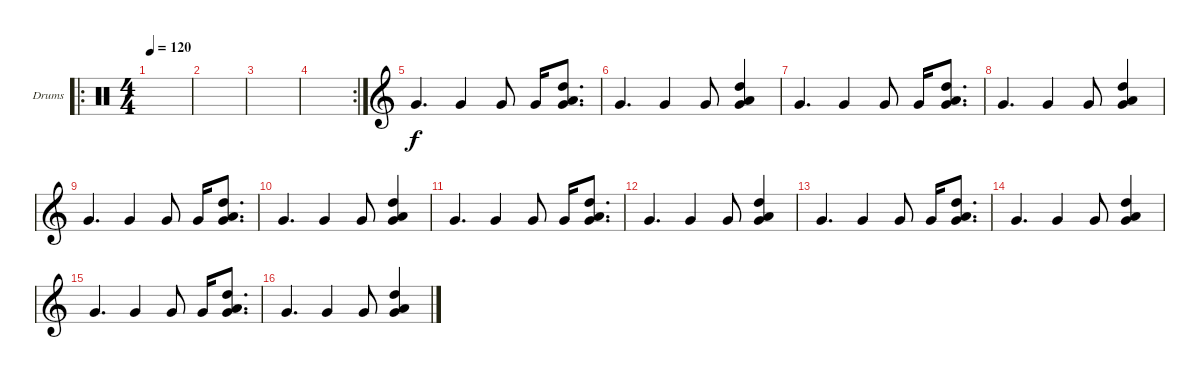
\defaultSystemsLayout 4
\bracketExtendMode groupsimilarinstruments
\firstSystemTrackNameOrientation horizontal
\otherSystemsTrackNameOrientation horizontal
\track ("Drumkit" "Drums") {instrument percussion}
\staff {score}
\articulation defaults
\ro
\ts (4 4)
\tempo 120
\clef neutral
\scale
0.5
\ks c
|
\scale
0.25 |
\scale
0.25 |
\rc 2
\scale
0.355932 |
\clef g2
\scale
0.322034 "Very Low Tom (hit)".4{d} "Very Low Tom (hit)".4 "Very Low Tom (hit)".8 "Very Low Tom (hit)".16 ("Very Low Tom (hit)" "High Tom (hit)" "Low Tom (hit)").8{d} |
\scale
0.322034 "Very Low Tom (hit)".4{d} "Very Low Tom (hit)".4 "Very Low Tom (hit)".8 ("Very Low Tom (hit)" "High Tom (hit)" "Low Tom (hit)").4 |
\scale
0.333333 "Very Low Tom (hit)".4{d} "Very Low Tom (hit)".4 "Very Low Tom (hit)".8 "Very Low Tom (hit)".16 ("Very Low Tom (hit)" "High Tom (hit)" "Low Tom (hit)").8{d} |
\scale
0.333333 "Very Low Tom (hit)".4{d} "Very Low Tom (hit)".4 "Very Low Tom (hit)".8 ("Very Low Tom (hit)" "High Tom (hit)" "Low Tom (hit)").4 |
\scale
0.333333 "Very Low Tom (hit)".4{d} "Very Low Tom (hit)".4 "Very Low Tom (hit)".8 "Very Low Tom (hit)".16 ("Very Low Tom (hit)" "High Tom (hit)" "Low Tom (hit)").8{d} |
\scale
0.333333 "Very Low Tom (hit)".4{d} "Very Low Tom (hit)".4 "Very Low Tom (hit)".8 ("Very Low Tom (hit)" "High Tom (hit)" "Low Tom (hit)").4 |
\scale
0.333333 "Very Low Tom (hit)".4{d} "Very Low Tom (hit)".4 "Very Low Tom (hit)".8 "Very Low Tom (hit)".16 ("Very Low Tom (hit)" "High Tom (hit)" "Low Tom (hit)").8{d} |
\scale
0.333333 "Very Low Tom (hit)".4{d} "Very Low Tom (hit)".4 "Very Low Tom (hit)".8 ("Very Low Tom (hit)" "High Tom (hit)" "Low Tom (hit)").4 |
\scale
0.333333 "Very Low Tom (hit)".4{d dy f} "Very Low Tom (hit)".4 "Very Low Tom (hit)".8 "Very Low Tom (hit)".16 ("Very Low Tom (hit)" "High Tom (hit)" "Low Tom (hit)").8{d} |
\scale
0.333333 "Very Low Tom (hit)".4{d} "Very Low Tom (hit)".4 "Very Low Tom (hit)".8 ("Very Low Tom (hit)" "High Tom (hit)" "Low Tom (hit)").4 |
\scale
0.333333 "Very Low Tom (hit)".4{d} "Very Low Tom (hit)".4 "Very Low Tom (hit)".8 "Very Low Tom (hit)".16 ("Very Low Tom (hit)" "High Tom (hit)" "Low Tom (hit)").8{d} |
"Very Low Tom (hit)".4{d} "Very Low Tom (hit)".4 "Very Low Tom (hit)".8 ("Very Low Tom (hit)" "High Tom (hit)" "Low Tom (hit)").4
